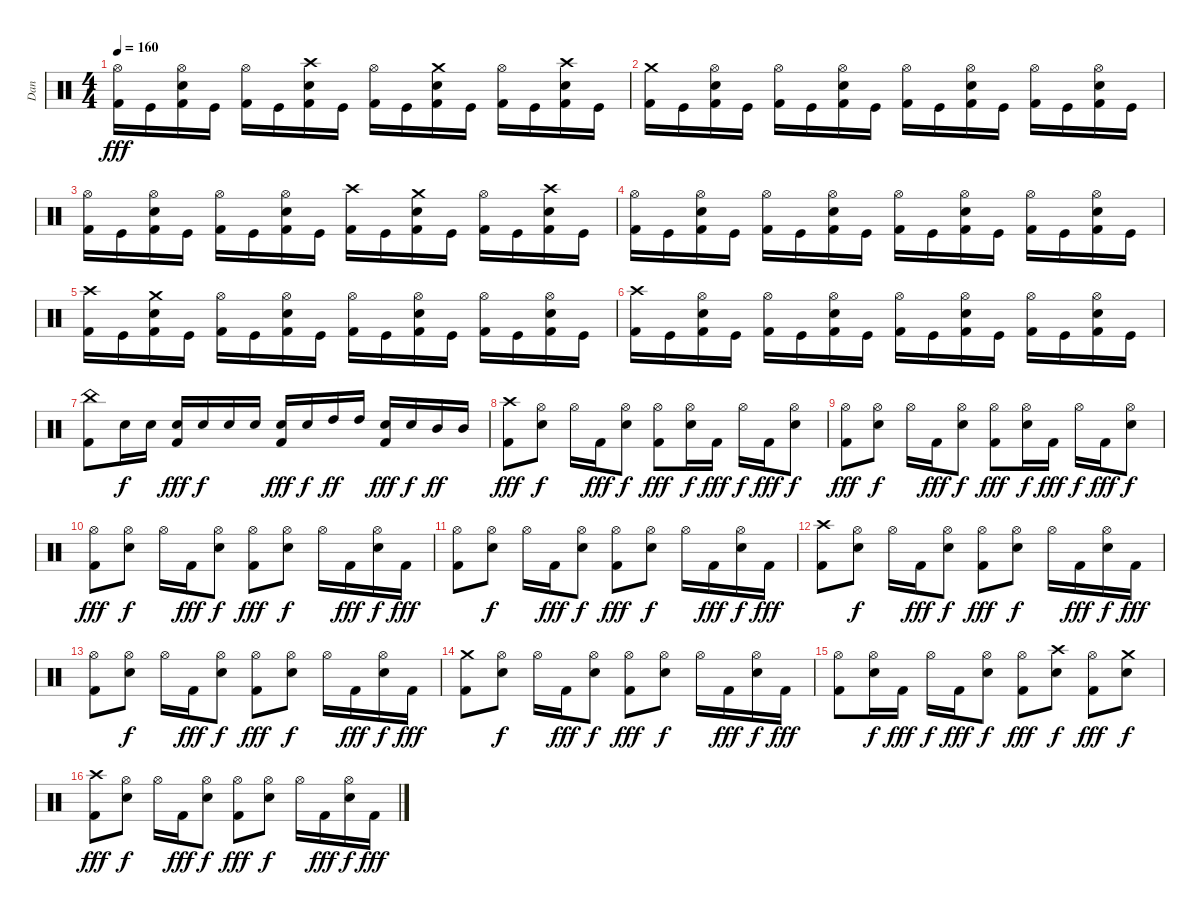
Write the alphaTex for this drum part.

\track ("Dan " "Dan ") {instrument percussion}
\staff {score}
\articulation defaults
\ts (4 4)
\tempo 160
\clef neutral
\ks c
("Hi-Hat (open)" "Kick (hit) 2").16{dy fff} "Kick (hit)".16 ("Hi-Hat (open)" "Electric Snare (hit)" "Kick (hit) 2").16 "Kick (hit)".16 ("Hi-Hat (open)" "Kick (hit) 2").16 "Kick (hit)".16 ("Crash high (hit)" "Electric Snare (hit)" "Kick (hit) 2").16 "Kick (hit)".16 ("Hi-Hat (open)" "Kick (hit) 2").16 "Kick (hit)".16 ("Crash medium (hit)" "Electric Snare (hit)" "Kick (hit) 2").16 "Kick (hit)".16 ("Hi-Hat (open)" "Kick (hit) 2").16 "Kick (hit)".16 ("Crash high (hit)" "Electric Snare (hit)" "Kick (hit) 2").16 "Kick (hit)".16 |
("Crash medium (hit)" "Kick (hit) 2").16 "Kick (hit)".16 ("Hi-Hat (open)" "Electric Snare (hit)" "Kick (hit) 2").16 "Kick (hit)".16 ("Hi-Hat (open)" "Kick (hit) 2").16 "Kick (hit)".16 ("Hi-Hat (open)" "Electric Snare (hit)" "Kick (hit) 2").16 "Kick (hit)".16 ("Hi-Hat (open)" "Kick (hit) 2").16 "Kick (hit)".16 ("Hi-Hat (open)" "Electric Snare (hit)" "Kick (hit) 2").16 "Kick (hit)".16 ("Hi-Hat (open)" "Kick (hit) 2").16 "Kick (hit)".16 ("Hi-Hat (open)" "Electric Snare (hit)" "Kick (hit) 2").16 "Kick (hit)".16 |
("Hi-Hat (open)" "Kick (hit) 2").16 "Kick (hit)".16 ("Hi-Hat (open)" "Electric Snare (hit)" "Kick (hit) 2").16 "Kick (hit)".16 ("Hi-Hat (open)" "Kick (hit) 2").16 "Kick (hit)".16 ("Hi-Hat (open)" "Electric Snare (hit)" "Kick (hit) 2").16 "Kick (hit)".16 ("Crash high (hit)" "Kick (hit) 2").16 "Kick (hit)".16 ("Crash medium (hit)" "Electric Snare (hit)" "Kick (hit) 2").16 "Kick (hit)".16 ("Hi-Hat (open)" "Kick (hit) 2").16 "Kick (hit)".16 ("Crash high (hit)" "Electric Snare (hit)" "Kick (hit) 2").16 "Kick (hit)".16 |
("Hi-Hat (open)" "Kick (hit) 2").16 "Kick (hit)".16 ("Hi-Hat (open)" "Electric Snare (hit)" "Kick (hit) 2").16 "Kick (hit)".16 ("Hi-Hat (open)" "Kick (hit) 2").16 "Kick (hit)".16 ("Hi-Hat (open)" "Electric Snare (hit)" "Kick (hit) 2").16 "Kick (hit)".16 ("Hi-Hat (open)" "Kick (hit) 2").16 "Kick (hit)".16 ("Hi-Hat (open)" "Electric Snare (hit)" "Kick (hit) 2").16 "Kick (hit)".16 ("Hi-Hat (open)" "Kick (hit) 2").16 "Kick (hit)".16 ("Hi-Hat (open)" "Electric Snare (hit)" "Kick (hit) 2").16 "Kick (hit)".16 |
("Crash high (hit)" "Kick (hit) 2").16 "Kick (hit)".16 ("Crash medium (hit)" "Electric Snare (hit)" "Kick (hit) 2").16 "Kick (hit)".16 ("Hi-Hat (open)" "Kick (hit) 2").16 "Kick (hit)".16 ("Hi-Hat (open)" "Electric Snare (hit)" "Kick (hit) 2").16 "Kick (hit)".16 ("Hi-Hat (open)" "Kick (hit) 2").16 "Kick (hit)".16 ("Hi-Hat (open)" "Electric Snare (hit)" "Kick (hit) 2").16 "Kick (hit)".16 ("Hi-Hat (open)" "Kick (hit) 2").16 "Kick (hit)".16 ("Hi-Hat (open)" "Electric Snare (hit)" "Kick (hit) 2").16 "Kick (hit)".16 |
("Crash high (hit)" "Kick (hit) 2").16 "Kick (hit)".16 ("Hi-Hat (open)" "Electric Snare (hit)" "Kick (hit) 2").16 "Kick (hit)".16 ("Hi-Hat (open)" "Kick (hit) 2").16 "Kick (hit)".16 ("Hi-Hat (open)" "Electric Snare (hit)" "Kick (hit) 2").16 "Kick (hit)".16 ("Hi-Hat (open)" "Kick (hit) 2").16 "Kick (hit)".16 ("Hi-Hat (open)" "Electric Snare (hit)" "Kick (hit) 2").16 "Kick (hit)".16 ("Hi-Hat (open)" "Kick (hit) 2").16 "Kick (hit)".16 ("Hi-Hat (open)" "Electric Snare (hit)" "Kick (hit) 2").16 "Kick (hit)".16 |
("China (hit)" "Kick (hit) 2").8 "Electric Snare (hit)".16{dy f} "Electric Snare (hit)".16 ("Electric Snare (hit)" "Kick (hit) 2").16{dy fff} "Electric Snare (hit)".16{dy f} "Electric Snare (hit)".16 "Electric Snare (hit)".16 ("Electric Snare (hit)" "Kick (hit) 2").16{dy fff} "Electric Snare (hit)".16{dy f} "High Tom (hit)".16{dy ff} "High Tom (hit)".16 ("Electric Snare (hit)" "Kick (hit) 2").16{dy fff} "Electric Snare (hit)".16{dy f} "Mid Tom (hit)".16{dy ff} "Mid Tom (hit)".16 |
("Crash high (hit)" "Kick (hit) 2").8{dy fff} ("Hi-Hat (open)" "Electric Snare (hit)").8{dy f} "Hi-Hat (open)".16 "Kick (hit) 2".16{dy fff} ("Hi-Hat (open)" "Electric Snare (hit)").8{dy f} ("Hi-Hat (open)" "Kick (hit) 2").8{dy fff} ("Hi-Hat (open)" "Electric Snare (hit)").16{dy f} "Kick (hit) 2".16{dy fff} "Hi-Hat (open)".16{dy f} "Kick (hit) 2".16{dy fff} ("Hi-Hat (open)" "Electric Snare (hit)").8{dy f} |
("Hi-Hat (open)" "Kick (hit) 2").8{dy fff} ("Hi-Hat (open)" "Electric Snare (hit)").8{dy f} "Hi-Hat (open)".16 "Kick (hit) 2".16{dy fff} ("Hi-Hat (open)" "Electric Snare (hit)").8{dy f} ("Hi-Hat (open)" "Kick (hit) 2").8{dy fff} ("Hi-Hat (open)" "Electric Snare (hit)").16{dy f} "Kick (hit) 2".16{dy fff} "Hi-Hat (open)".16{dy f} "Kick (hit) 2".16{dy fff} ("Hi-Hat (open)" "Electric Snare (hit)").8{dy f} |
("Hi-Hat (open)" "Kick (hit) 2").8{dy fff} ("Hi-Hat (open)" "Electric Snare (hit)").8{dy f} "Hi-Hat (open)".16 "Kick (hit) 2".16{dy fff} ("Hi-Hat (open)" "Electric Snare (hit)").8{dy f} ("Hi-Hat (open)" "Kick (hit) 2").8{dy fff} ("Hi-Hat (open)" "Electric Snare (hit)").8{dy f} "Hi-Hat (open)".16 "Kick (hit) 2".16{dy fff} ("Hi-Hat (open)" "Electric Snare (hit)").16{dy f} "Kick (hit) 2".16{dy fff} |
("Hi-Hat (open)" "Kick (hit) 2").8 ("Hi-Hat (open)" "Electric Snare (hit)").8{dy f} "Hi-Hat (open)".16 "Kick (hit) 2".16{dy fff} ("Hi-Hat (open)" "Electric Snare (hit)").8{dy f} ("Hi-Hat (open)" "Kick (hit) 2").8{dy fff} ("Hi-Hat (open)" "Electric Snare (hit)").8{dy f} "Hi-Hat (open)".16 "Kick (hit) 2".16{dy fff} ("Hi-Hat (open)" "Electric Snare (hit)").16{dy f} "Kick (hit) 2".16{dy fff} |
("Crash high (hit)" "Kick (hit) 2").8 ("Hi-Hat (open)" "Electric Snare (hit)").8{dy f} "Hi-Hat (open)".16 "Kick (hit) 2".16{dy fff} ("Hi-Hat (open)" "Electric Snare (hit)").8{dy f} ("Hi-Hat (open)" "Kick (hit) 2").8{dy fff} ("Hi-Hat (open)" "Electric Snare (hit)").8{dy f} "Hi-Hat (open)".16 "Kick (hit) 2".16{dy fff} ("Hi-Hat (open)" "Electric Snare (hit)").16{dy f} "Kick (hit) 2".16{dy fff} |
("Hi-Hat (open)" "Kick (hit) 2").8 ("Hi-Hat (open)" "Electric Snare (hit)").8{dy f} "Hi-Hat (open)".16 "Kick (hit) 2".16{dy fff} ("Hi-Hat (open)" "Electric Snare (hit)").8{dy f} ("Hi-Hat (open)" "Kick (hit) 2").8{dy fff} ("Hi-Hat (open)" "Electric Snare (hit)").8{dy f} "Hi-Hat (open)".16 "Kick (hit) 2".16{dy fff} ("Hi-Hat (open)" "Electric Snare (hit)").16{dy f} "Kick (hit) 2".16{dy fff} |
("Crash medium (hit)" "Kick (hit) 2").8 ("Hi-Hat (open)" "Electric Snare (hit)").8{dy f} "Hi-Hat (open)".16 "Kick (hit) 2".16{dy fff} ("Hi-Hat (open)" "Electric Snare (hit)").8{dy f} ("Hi-Hat (open)" "Kick (hit) 2").8{dy fff} ("Hi-Hat (open)" "Electric Snare (hit)").8{dy f} "Hi-Hat (open)".16 "Kick (hit) 2".16{dy fff} ("Hi-Hat (open)" "Electric Snare (hit)").16{dy f} "Kick (hit) 2".16{dy fff} |
("Hi-Hat (open)" "Kick (hit) 2").8 ("Hi-Hat (open)" "Electric Snare (hit)").16{dy f} "Kick (hit) 2".16{dy fff} "Hi-Hat (open)".16{dy f} "Kick (hit) 2".16{dy fff} ("Hi-Hat (open)" "Electric Snare (hit)").8{dy f} ("Hi-Hat (open)" "Kick (hit) 2").8{dy fff} ("Crash high (hit)" "Electric Snare (hit)").8{dy f} ("Hi-Hat (open)" "Kick (hit) 2").8{dy fff} ("Crash medium (hit)" "Electric Snare (hit)").8{dy f} |
("Crash high (hit)" "Kick (hit) 2").8{dy fff} ("Hi-Hat (open)" "Electric Snare (hit)").8{dy f} "Hi-Hat (open)".16 "Kick (hit) 2".16{dy fff} ("Hi-Hat (open)" "Electric Snare (hit)").8{dy f} ("Hi-Hat (open)" "Kick (hit) 2").8{dy fff} ("Hi-Hat (open)" "Electric Snare (hit)").8{dy f} "Hi-Hat (open)".16 "Kick (hit) 2".16{dy fff} ("Hi-Hat (open)" "Electric Snare (hit)").16{dy f} "Kick (hit) 2".16{dy fff}
